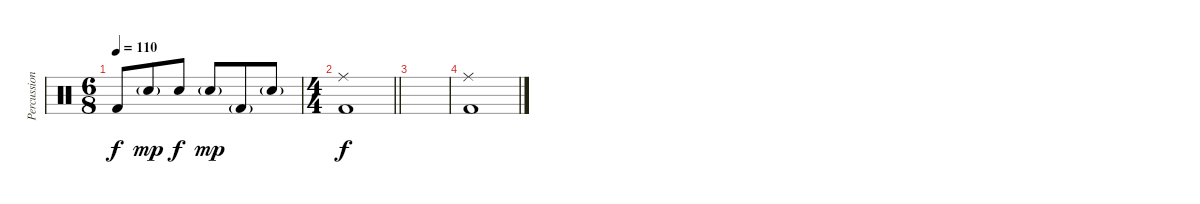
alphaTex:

\track ("Percussion" "Percussion") {instrument percussion}
\staff {score}
\articulation defaults
\ts (6 8)
\tempo 110
\clef neutral
\ks c "Kick (hit) 2".8{dy f} "Hand Clap (hit)"{g}.8{dy mp} "Snare (hit) 2".8{dy f} "Hand Clap (hit)"{g}.8{dy mp} "Kick (hit) 2"{g}.8 "Hand Clap (hit)"{g}.8
|
\ts (4 4)
\barLineRight lightlight
("Ride (middle)" "Kick (hit) 2").1{dy f} |
|
("Ride (middle)" "Kick (hit) 2").1
